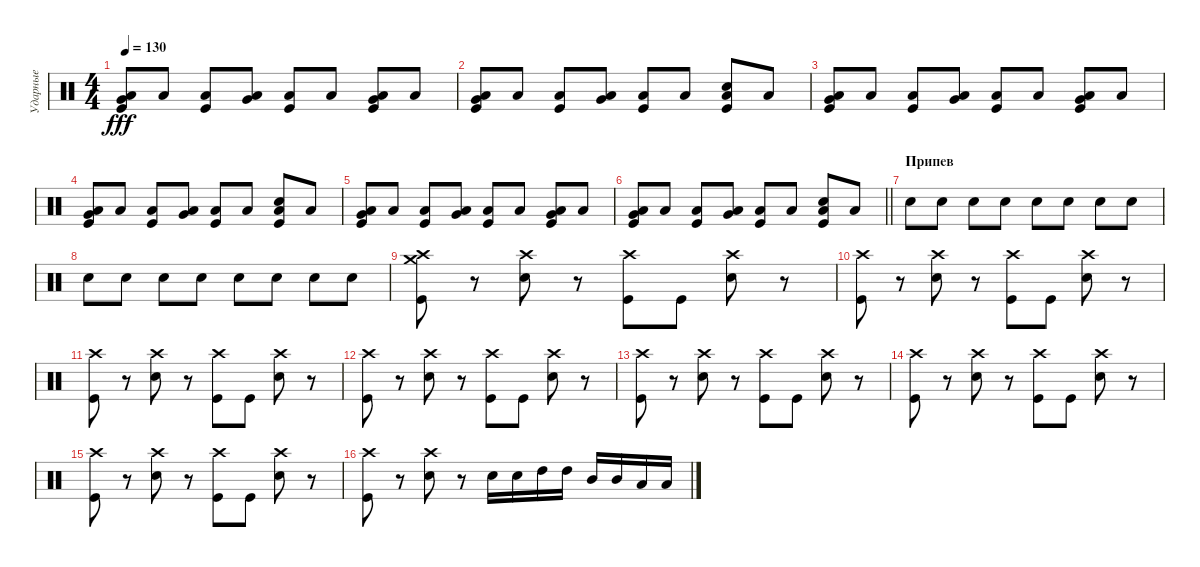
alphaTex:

\track ("Ударные" "Ударные") {instrument percussion}
\staff {score}
\articulation defaults
\ts (4 4)
\tempo 130
\clef neutral
\ks c
("Kick (hit)" "Low Tom (hit)" "Very Low Tom (hit)").8{dy fff} "Low Tom (hit)".8 ("Kick (hit)" "Low Tom (hit)").8 ("Low Tom (hit)" "Very Low Tom (hit)").8 ("Kick (hit)" "Low Tom (hit)").8 "Low Tom (hit)".8 ("Kick (hit)" "Low Tom (hit)" "Very Low Tom (hit)").8 "Low Tom (hit)".8 |
("Kick (hit)" "Low Tom (hit)" "Very Low Tom (hit)").8 "Low Tom (hit)".8 ("Kick (hit)" "Low Tom (hit)").8 ("Low Tom (hit)" "Very Low Tom (hit)").8 ("Kick (hit)" "Low Tom (hit)").8 "Low Tom (hit)".8 ("Kick (hit)" "Low Tom (hit)" "Electric Snare (hit)").8 "Low Tom (hit)".8 |
("Kick (hit)" "Low Tom (hit)" "Very Low Tom (hit)").8 "Low Tom (hit)".8 ("Kick (hit)" "Low Tom (hit)").8 ("Low Tom (hit)" "Very Low Tom (hit)").8 ("Kick (hit)" "Low Tom (hit)").8 "Low Tom (hit)".8 ("Kick (hit)" "Low Tom (hit)" "Very Low Tom (hit)").8 "Low Tom (hit)".8 |
("Kick (hit)" "Low Tom (hit)" "Very Low Tom (hit)").8 "Low Tom (hit)".8 ("Kick (hit)" "Low Tom (hit)").8 ("Low Tom (hit)" "Very Low Tom (hit)").8 ("Kick (hit)" "Low Tom (hit)").8 "Low Tom (hit)".8 ("Kick (hit)" "Low Tom (hit)" "Electric Snare (hit)").8 "Low Tom (hit)".8 |
("Kick (hit)" "Low Tom (hit)" "Very Low Tom (hit)").8 "Low Tom (hit)".8 ("Kick (hit)" "Low Tom (hit)").8 ("Low Tom (hit)" "Very Low Tom (hit)").8 ("Kick (hit)" "Low Tom (hit)").8 "Low Tom (hit)".8 ("Kick (hit)" "Low Tom (hit)" "Very Low Tom (hit)").8 "Low Tom (hit)".8 |
\barLineRight lightlight
("Kick (hit)" "Low Tom (hit)" "Very Low Tom (hit)").8 "Low Tom (hit)".8 ("Kick (hit)" "Low Tom (hit)").8 ("Low Tom (hit)" "Very Low Tom (hit)").8 ("Kick (hit)" "Low Tom (hit)").8 "Low Tom (hit)".8 ("Kick (hit)" "Low Tom (hit)" "Electric Snare (hit)").8 "Low Tom (hit)".8 |
\section ("" "Припев")
"Electric Snare (hit)".8 "Electric Snare (hit)".8 "Electric Snare (hit)".8 "Electric Snare (hit)".8 "Electric Snare (hit)".8 "Electric Snare (hit)".8 "Electric Snare (hit)".8 "Electric Snare (hit)".8 |
"Electric Snare (hit)".8 "Electric Snare (hit)".8 "Electric Snare (hit)".8 "Electric Snare (hit)".8 "Electric Snare (hit)".8 "Electric Snare (hit)".8 "Electric Snare (hit)".8 "Electric Snare (hit)".8 |
("Crash medium (hit)" "Kick (hit)" "Crash high (hit)").8 r.8 ("Crash high (hit)" "Electric Snare (hit)").8 r.8 ("Crash high (hit)" "Kick (hit)").8 "Kick (hit)".8 ("Crash high (hit)" "Electric Snare (hit)").8 r.8 |
("Crash high (hit)" "Kick (hit)").8 r.8 ("Crash high (hit)" "Electric Snare (hit)").8 r.8 ("Crash high (hit)" "Kick (hit)").8 "Kick (hit)".8 ("Crash high (hit)" "Electric Snare (hit)").8 r.8 |
("Crash high (hit)" "Kick (hit)").8 r.8 ("Crash high (hit)" "Electric Snare (hit)").8 r.8 ("Crash high (hit)" "Kick (hit)").8 "Kick (hit)".8 ("Crash high (hit)" "Electric Snare (hit)").8 r.8 |
("Crash high (hit)" "Kick (hit)").8 r.8 ("Crash high (hit)" "Electric Snare (hit)").8 r.8 ("Crash high (hit)" "Kick (hit)").8 "Kick (hit)".8 ("Crash high (hit)" "Electric Snare (hit)").8 r.8 |
("Crash high (hit)" "Kick (hit)").8 r.8 ("Crash high (hit)" "Electric Snare (hit)").8 r.8 ("Crash high (hit)" "Kick (hit)").8 "Kick (hit)".8 ("Crash high (hit)" "Electric Snare (hit)").8 r.8 |
("Crash high (hit)" "Kick (hit)").8 r.8 ("Crash high (hit)" "Electric Snare (hit)").8 r.8 ("Crash high (hit)" "Kick (hit)").8 "Kick (hit)".8 ("Crash high (hit)" "Electric Snare (hit)").8 r.8 |
("Crash high (hit)" "Kick (hit)").8 r.8 ("Crash high (hit)" "Electric Snare (hit)").8 r.8 ("Crash high (hit)" "Kick (hit)").8 "Kick (hit)".8 ("Crash high (hit)" "Electric Snare (hit)").8 r.8 |
("Crash high (hit)" "Kick (hit)").8 r.8 ("Crash high (hit)" "Electric Snare (hit)").8 r.8 "Electric Snare (hit)".16 "Electric Snare (hit)".16 "High Tom (hit)".16 "High Tom (hit)".16 "Mid Tom (hit)".16 "Mid Tom (hit)".16 "Low Tom (hit)".16 "Low Tom (hit)".16
